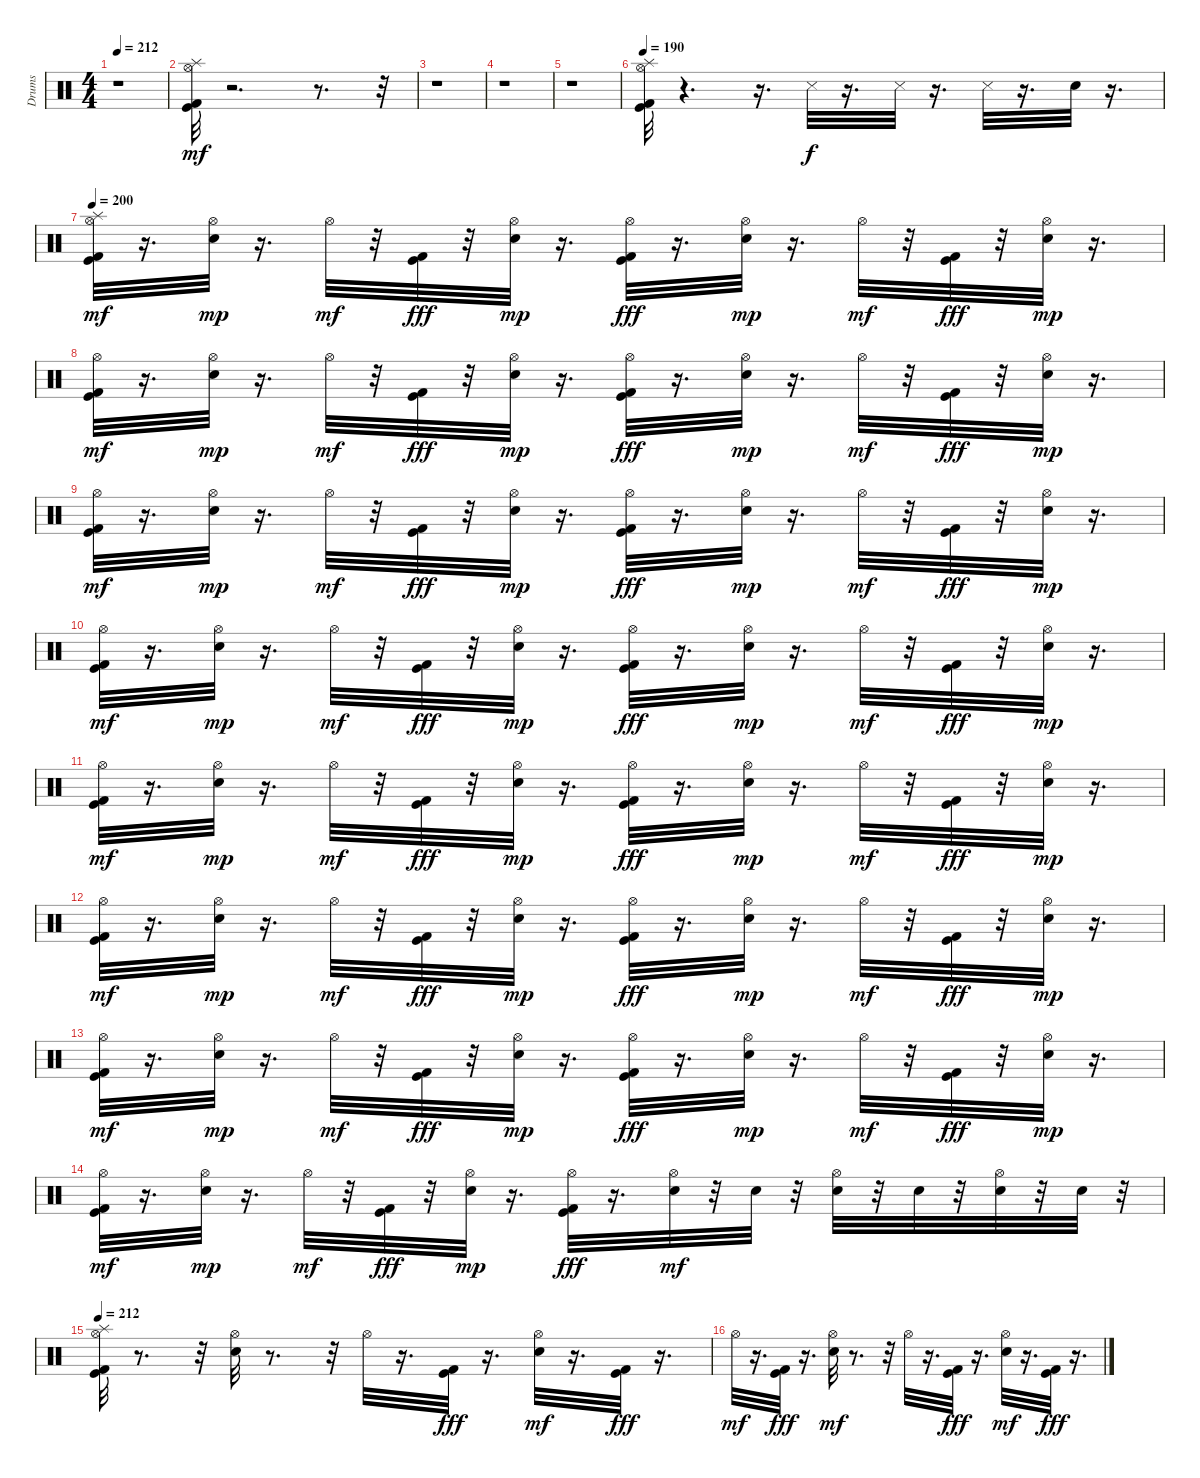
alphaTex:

\track ("Drums" "Drums") {instrument percussion}
\staff {score}
\articulation defaults
\ts (4 4)
\tempo 212
\clef neutral
\ks c
r.1{dy mf} |
("Kick (hit) 2" "Kick (hit)" "Splash (hit)" "Hi-Hat (open)").32 r.2{d} r.8{d} r.32 |
r.1 |
r.1 |
r.1 |
\tempo 190
("Kick (hit) 2" "Kick (hit)" "Splash (hit)" "Hi-Hat (open)").32 r.4{d} r.16{d} "Snare (side stick) 3".32{dy f} r.16{d} "Snare (side stick) 3".32 r.16{d} "Snare (side stick) 3".32 r.16{d} "Snare (hit) 2".32 r.16{d} |
\tempo 200
("Kick (hit) 2" "Kick (hit)" "Splash (hit)" "Hi-Hat (open)").32{dy mf} r.16{d} ("Hi-Hat (open)" "Snare (hit) 2").32{dy mp} r.16{d} "Hi-Hat (open)".32{dy mf} r.32 ("Kick (hit)" "Kick (hit) 2").32{dy fff} r.32 ("Hi-Hat (open)" "Snare (hit) 2").32{dy mp} r.16{d} ("Hi-Hat (open)" "Kick (hit) 2" "Kick (hit)").32{dy fff} r.16{d} ("Hi-Hat (open)" "Snare (hit) 2").32{dy mp} r.16{d} "Hi-Hat (open)".32{dy mf} r.32 ("Kick (hit)" "Kick (hit) 2").32{dy fff} r.32 ("Hi-Hat (open)" "Snare (hit) 2").32{dy mp} r.16{d} |
("Kick (hit) 2" "Kick (hit)" "Hi-Hat (open)").32{dy mf} r.16{d} ("Hi-Hat (open)" "Snare (hit) 2").32{dy mp} r.16{d} "Hi-Hat (open)".32{dy mf} r.32 ("Kick (hit)" "Kick (hit) 2").32{dy fff} r.32 ("Hi-Hat (open)" "Snare (hit) 2").32{dy mp} r.16{d} ("Hi-Hat (open)" "Kick (hit) 2" "Kick (hit)").32{dy fff} r.16{d} ("Hi-Hat (open)" "Snare (hit) 2").32{dy mp} r.16{d} "Hi-Hat (open)".32{dy mf} r.32 ("Kick (hit)" "Kick (hit) 2").32{dy fff} r.32 ("Hi-Hat (open)" "Snare (hit) 2").32{dy mp} r.16{d} |
("Kick (hit) 2" "Kick (hit)" "Hi-Hat (open)").32{dy mf} r.16{d} ("Hi-Hat (open)" "Snare (hit) 2").32{dy mp} r.16{d} "Hi-Hat (open)".32{dy mf} r.32 ("Kick (hit)" "Kick (hit) 2").32{dy fff} r.32 ("Hi-Hat (open)" "Snare (hit) 2").32{dy mp} r.16{d} ("Hi-Hat (open)" "Kick (hit) 2" "Kick (hit)").32{dy fff} r.16{d} ("Hi-Hat (open)" "Snare (hit) 2").32{dy mp} r.16{d} "Hi-Hat (open)".32{dy mf} r.32 ("Kick (hit)" "Kick (hit) 2").32{dy fff} r.32 ("Hi-Hat (open)" "Snare (hit) 2").32{dy mp} r.16{d} |
("Kick (hit) 2" "Kick (hit)" "Hi-Hat (open)").32{dy mf} r.16{d} ("Hi-Hat (open)" "Snare (hit) 2").32{dy mp} r.16{d} "Hi-Hat (open)".32{dy mf} r.32 ("Kick (hit)" "Kick (hit) 2").32{dy fff} r.32 ("Hi-Hat (open)" "Snare (hit) 2").32{dy mp} r.16{d} ("Hi-Hat (open)" "Kick (hit) 2" "Kick (hit)").32{dy fff} r.16{d} ("Hi-Hat (open)" "Snare (hit) 2").32{dy mp} r.16{d} "Hi-Hat (open)".32{dy mf} r.32 ("Kick (hit)" "Kick (hit) 2").32{dy fff} r.32 ("Hi-Hat (open)" "Snare (hit) 2").32{dy mp} r.16{d} |
("Kick (hit) 2" "Kick (hit)" "Hi-Hat (open)").32{dy mf} r.16{d} ("Hi-Hat (open)" "Snare (hit) 2").32{dy mp} r.16{d} "Hi-Hat (open)".32{dy mf} r.32 ("Kick (hit)" "Kick (hit) 2").32{dy fff} r.32 ("Hi-Hat (open)" "Snare (hit) 2").32{dy mp} r.16{d} ("Hi-Hat (open)" "Kick (hit) 2" "Kick (hit)").32{dy fff} r.16{d} ("Hi-Hat (open)" "Snare (hit) 2").32{dy mp} r.16{d} "Hi-Hat (open)".32{dy mf} r.32 ("Kick (hit)" "Kick (hit) 2").32{dy fff} r.32 ("Hi-Hat (open)" "Snare (hit) 2").32{dy mp} r.16{d} |
("Kick (hit) 2" "Kick (hit)" "Hi-Hat (open)").32{dy mf} r.16{d} ("Hi-Hat (open)" "Snare (hit) 2").32{dy mp} r.16{d} "Hi-Hat (open)".32{dy mf} r.32 ("Kick (hit)" "Kick (hit) 2").32{dy fff} r.32 ("Hi-Hat (open)" "Snare (hit) 2").32{dy mp} r.16{d} ("Hi-Hat (open)" "Kick (hit) 2" "Kick (hit)").32{dy fff} r.16{d} ("Hi-Hat (open)" "Snare (hit) 2").32{dy mp} r.16{d} "Hi-Hat (open)".32{dy mf} r.32 ("Kick (hit)" "Kick (hit) 2").32{dy fff} r.32 ("Hi-Hat (open)" "Snare (hit) 2").32{dy mp} r.16{d} |
("Kick (hit) 2" "Kick (hit)" "Hi-Hat (open)").32{dy mf} r.16{d} ("Hi-Hat (open)" "Snare (hit) 2").32{dy mp} r.16{d} "Hi-Hat (open)".32{dy mf} r.32 ("Kick (hit)" "Kick (hit) 2").32{dy fff} r.32 ("Hi-Hat (open)" "Snare (hit) 2").32{dy mp} r.16{d} ("Hi-Hat (open)" "Kick (hit) 2" "Kick (hit)").32{dy fff} r.16{d} ("Hi-Hat (open)" "Snare (hit) 2").32{dy mp} r.16{d} "Hi-Hat (open)".32{dy mf} r.32 ("Kick (hit)" "Kick (hit) 2").32{dy fff} r.32 ("Hi-Hat (open)" "Snare (hit) 2").32{dy mp} r.16{d} |
("Kick (hit) 2" "Kick (hit)" "Hi-Hat (open)").32{dy mf} r.16{d} ("Hi-Hat (open)" "Snare (hit) 2").32{dy mp} r.16{d} "Hi-Hat (open)".32{dy mf} r.32 ("Kick (hit)" "Kick (hit) 2").32{dy fff} r.32 ("Hi-Hat (open)" "Snare (hit) 2").32{dy mp} r.16{d} ("Hi-Hat (open)" "Kick (hit) 2" "Kick (hit)").32{dy fff} r.16{d} ("Hi-Hat (open)" "Snare (hit) 2").32{dy mf} r.32 "Snare (hit) 2".32 r.32 ("Hi-Hat (open)" "Snare (hit) 2").32 r.32 "Snare (hit) 2".32 r.32 ("Hi-Hat (open)" "Snare (hit) 2").32 r.32 "Snare (hit) 2".32 r.32 |
\tempo 212
("Splash (hit)" "Kick (hit) 2" "Kick (hit)" "Hi-Hat (open)").32 r.8{d} r.32 ("Snare (hit) 2" "Hi-Hat (open)").32 r.8{d} r.32 "Hi-Hat (open)".32 r.16{d} ("Kick (hit)" "Kick (hit) 2").32{dy fff} r.16{d} ("Hi-Hat (open)" "Snare (hit) 2").32{dy mf} r.16{d} ("Kick (hit)" "Kick (hit) 2").32{dy fff} r.16{d} |
"Hi-Hat (open)".32{dy mf} r.16{d} ("Kick (hit)" "Kick (hit) 2").32{dy fff} r.16{d} ("Hi-Hat (open)" "Snare (hit) 2").32{dy mf} r.8{d} r.32 "Hi-Hat (open)".32 r.16{d} ("Kick (hit)" "Kick (hit) 2").32{dy fff} r.16{d} ("Hi-Hat (open)" "Snare (hit) 2").32{dy mf} r.16{d} ("Kick (hit)" "Kick (hit) 2").32{dy fff} r.16{d}
